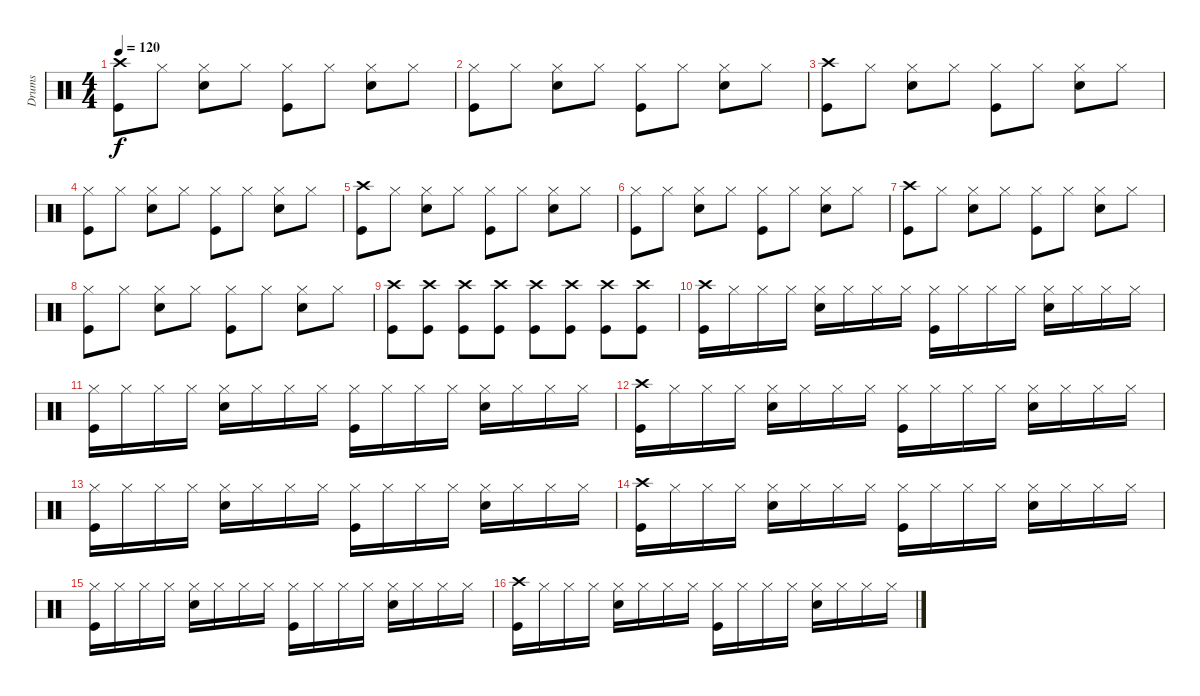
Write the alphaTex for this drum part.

\track ("Drums" "Drums") {instrument percussion}
\staff {score}
\articulation defaults
\ts (4 4)
\tempo 120
\clef neutral
\ks c
("Crash high (hit)" "Kick (hit)").8{dy f} "Hi-Hat (closed)".8 ("Hi-Hat (closed)" "Electric Snare (hit)").8 "Hi-Hat (closed)".8 ("Hi-Hat (closed)" "Kick (hit)").8 "Hi-Hat (closed)".8 ("Hi-Hat (closed)" "Electric Snare (hit)").8 "Hi-Hat (closed)".8 |
("Hi-Hat (closed)" "Kick (hit)").8 "Hi-Hat (closed)".8 ("Hi-Hat (closed)" "Electric Snare (hit)").8 "Hi-Hat (closed)".8 ("Hi-Hat (closed)" "Kick (hit)").8 "Hi-Hat (closed)".8 ("Hi-Hat (closed)" "Electric Snare (hit)").8 "Hi-Hat (closed)".8 |
("Crash high (hit)" "Kick (hit)").8 "Hi-Hat (closed)".8 ("Hi-Hat (closed)" "Electric Snare (hit)").8 "Hi-Hat (closed)".8 ("Hi-Hat (closed)" "Kick (hit)").8 "Hi-Hat (closed)".8 ("Hi-Hat (closed)" "Electric Snare (hit)").8 "Hi-Hat (closed)".8 |
("Hi-Hat (closed)" "Kick (hit)").8 "Hi-Hat (closed)".8 ("Hi-Hat (closed)" "Electric Snare (hit)").8 "Hi-Hat (closed)".8 ("Hi-Hat (closed)" "Kick (hit)").8 "Hi-Hat (closed)".8 ("Hi-Hat (closed)" "Electric Snare (hit)").8 "Hi-Hat (closed)".8 |
("Crash high (hit)" "Kick (hit)").8 "Hi-Hat (closed)".8 ("Hi-Hat (closed)" "Electric Snare (hit)").8 "Hi-Hat (closed)".8 ("Hi-Hat (closed)" "Kick (hit)").8 "Hi-Hat (closed)".8 ("Hi-Hat (closed)" "Electric Snare (hit)").8 "Hi-Hat (closed)".8 |
("Hi-Hat (closed)" "Kick (hit)").8 "Hi-Hat (closed)".8 ("Hi-Hat (closed)" "Electric Snare (hit)").8 "Hi-Hat (closed)".8 ("Hi-Hat (closed)" "Kick (hit)").8 "Hi-Hat (closed)".8 ("Hi-Hat (closed)" "Electric Snare (hit)").8 "Hi-Hat (closed)".8 |
("Crash high (hit)" "Kick (hit)").8 "Hi-Hat (closed)".8 ("Hi-Hat (closed)" "Electric Snare (hit)").8 "Hi-Hat (closed)".8 ("Hi-Hat (closed)" "Kick (hit)").8 "Hi-Hat (closed)".8 ("Hi-Hat (closed)" "Electric Snare (hit)").8 "Hi-Hat (closed)".8 |
("Hi-Hat (closed)" "Kick (hit)").8 "Hi-Hat (closed)".8 ("Hi-Hat (closed)" "Electric Snare (hit)").8 "Hi-Hat (closed)".8 ("Hi-Hat (closed)" "Kick (hit)").8 "Hi-Hat (closed)".8 ("Hi-Hat (closed)" "Electric Snare (hit)").8 "Hi-Hat (closed)".8 |
("Crash high (hit)" "Kick (hit)").8 ("Crash high (hit)" "Kick (hit)").8 ("Crash high (hit)" "Kick (hit)").8 ("Crash high (hit)" "Kick (hit)").8 ("Crash high (hit)" "Kick (hit)").8 ("Crash high (hit)" "Kick (hit)").8 ("Crash high (hit)" "Kick (hit)").8 ("Crash high (hit)" "Kick (hit)").8 |
("Crash high (hit)" "Kick (hit)").16 "Hi-Hat (closed)".16 "Hi-Hat (closed)".16 "Hi-Hat (closed)".16 ("Hi-Hat (closed)" "Electric Snare (hit)").16 "Hi-Hat (closed)".16 "Hi-Hat (closed)".16 "Hi-Hat (closed)".16 ("Hi-Hat (closed)" "Kick (hit)").16 "Hi-Hat (closed)".16 "Hi-Hat (closed)".16 "Hi-Hat (closed)".16 ("Hi-Hat (closed)" "Electric Snare (hit)").16 "Hi-Hat (closed)".16 "Hi-Hat (closed)".16 "Hi-Hat (closed)".16 |
("Hi-Hat (closed)" "Kick (hit)").16 "Hi-Hat (closed)".16 "Hi-Hat (closed)".16 "Hi-Hat (closed)".16 ("Hi-Hat (closed)" "Electric Snare (hit)").16 "Hi-Hat (closed)".16 "Hi-Hat (closed)".16 "Hi-Hat (closed)".16 ("Hi-Hat (closed)" "Kick (hit)").16 "Hi-Hat (closed)".16 "Hi-Hat (closed)".16 "Hi-Hat (closed)".16 ("Hi-Hat (closed)" "Electric Snare (hit)").16 "Hi-Hat (closed)".16 "Hi-Hat (closed)".16 "Hi-Hat (closed)".16 |
("Crash high (hit)" "Kick (hit)").16 "Hi-Hat (closed)".16 "Hi-Hat (closed)".16 "Hi-Hat (closed)".16 ("Hi-Hat (closed)" "Electric Snare (hit)").16 "Hi-Hat (closed)".16 "Hi-Hat (closed)".16 "Hi-Hat (closed)".16 ("Hi-Hat (closed)" "Kick (hit)").16 "Hi-Hat (closed)".16 "Hi-Hat (closed)".16 "Hi-Hat (closed)".16 ("Hi-Hat (closed)" "Electric Snare (hit)").16 "Hi-Hat (closed)".16 "Hi-Hat (closed)".16 "Hi-Hat (closed)".16 |
("Hi-Hat (closed)" "Kick (hit)").16 "Hi-Hat (closed)".16 "Hi-Hat (closed)".16 "Hi-Hat (closed)".16 ("Hi-Hat (closed)" "Electric Snare (hit)").16 "Hi-Hat (closed)".16 "Hi-Hat (closed)".16 "Hi-Hat (closed)".16 ("Hi-Hat (closed)" "Kick (hit)").16 "Hi-Hat (closed)".16 "Hi-Hat (closed)".16 "Hi-Hat (closed)".16 ("Hi-Hat (closed)" "Electric Snare (hit)").16 "Hi-Hat (closed)".16 "Hi-Hat (closed)".16 "Hi-Hat (closed)".16 |
("Crash high (hit)" "Kick (hit)").16 "Hi-Hat (closed)".16 "Hi-Hat (closed)".16 "Hi-Hat (closed)".16 ("Hi-Hat (closed)" "Electric Snare (hit)").16 "Hi-Hat (closed)".16 "Hi-Hat (closed)".16 "Hi-Hat (closed)".16 ("Hi-Hat (closed)" "Kick (hit)").16 "Hi-Hat (closed)".16 "Hi-Hat (closed)".16 "Hi-Hat (closed)".16 ("Hi-Hat (closed)" "Electric Snare (hit)").16 "Hi-Hat (closed)".16 "Hi-Hat (closed)".16 "Hi-Hat (closed)".16 |
("Hi-Hat (closed)" "Kick (hit)").16 "Hi-Hat (closed)".16 "Hi-Hat (closed)".16 "Hi-Hat (closed)".16 ("Hi-Hat (closed)" "Electric Snare (hit)").16 "Hi-Hat (closed)".16 "Hi-Hat (closed)".16 "Hi-Hat (closed)".16 ("Hi-Hat (closed)" "Kick (hit)").16 "Hi-Hat (closed)".16 "Hi-Hat (closed)".16 "Hi-Hat (closed)".16 ("Hi-Hat (closed)" "Electric Snare (hit)").16 "Hi-Hat (closed)".16 "Hi-Hat (closed)".16 "Hi-Hat (closed)".16 |
("Crash high (hit)" "Kick (hit)").16 "Hi-Hat (closed)".16 "Hi-Hat (closed)".16 "Hi-Hat (closed)".16 ("Hi-Hat (closed)" "Electric Snare (hit)").16 "Hi-Hat (closed)".16 "Hi-Hat (closed)".16 "Hi-Hat (closed)".16 ("Hi-Hat (closed)" "Kick (hit)").16 "Hi-Hat (closed)".16 "Hi-Hat (closed)".16 "Hi-Hat (closed)".16 ("Hi-Hat (closed)" "Electric Snare (hit)").16 "Hi-Hat (closed)".16 "Hi-Hat (closed)".16 "Hi-Hat (closed)".16
